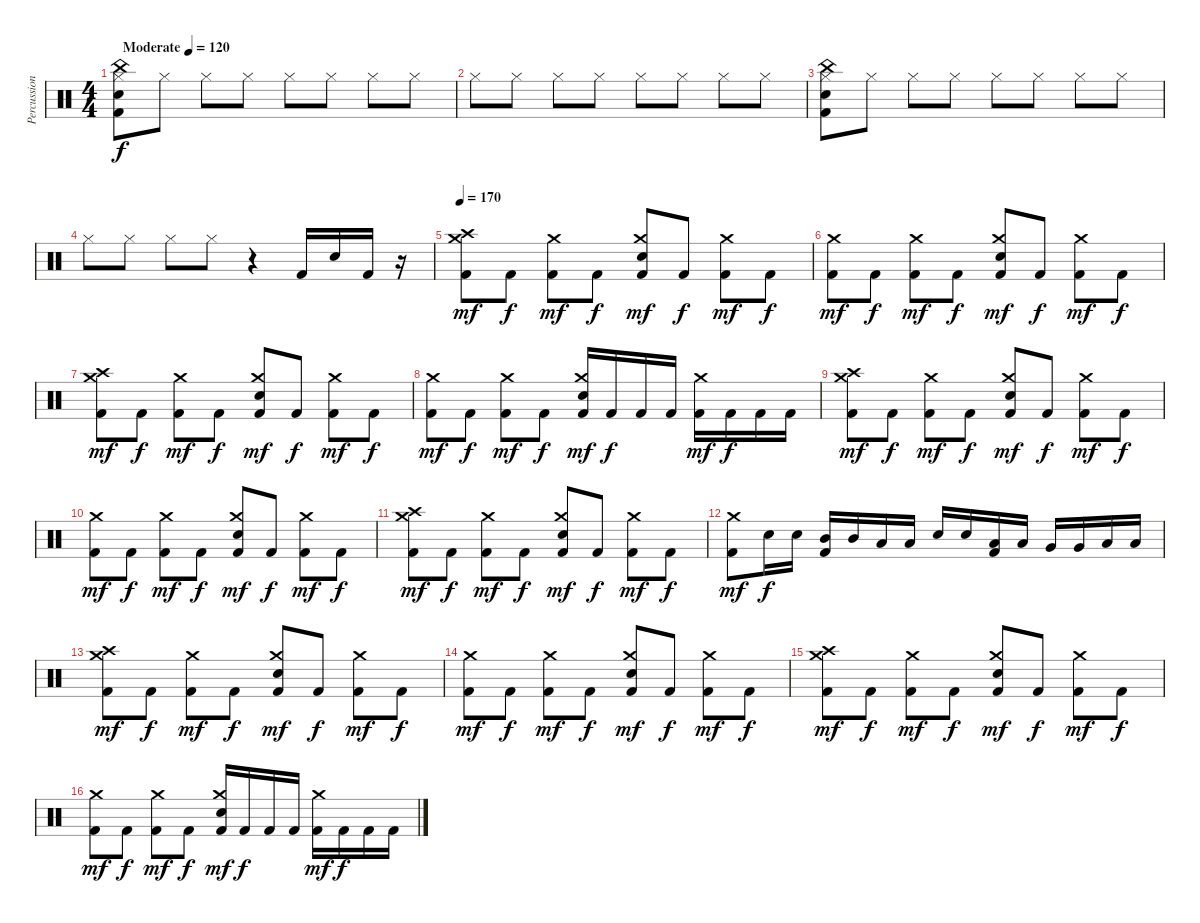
\track ("Percussions" "Percussion") {instrument percussion}
\staff {score}
\articulation defaults
\ts (4 4)
\tempo (120 "Moderate")
\tempo 100
\tempo (120 "Moderate")
\clef neutral
\ks c
("China (hit)" "Hi-Hat (closed)" "Kick (hit) 2" "Electric Snare (hit)").8{dy f} "Hi-Hat (closed)".8 "Hi-Hat (closed)".8 "Hi-Hat (closed)".8 "Hi-Hat (closed)".8 "Hi-Hat (closed)".8 "Hi-Hat (closed)".8 "Hi-Hat (closed)".8 |
"Hi-Hat (closed)".8 "Hi-Hat (closed)".8 "Hi-Hat (closed)".8 "Hi-Hat (closed)".8 "Hi-Hat (closed)".8 "Hi-Hat (closed)".8 "Hi-Hat (closed)".8 "Hi-Hat (closed)".8 |
("China (hit)" "Hi-Hat (closed)" "Kick (hit) 2" "Electric Snare (hit)").8 "Hi-Hat (closed)".8 "Hi-Hat (closed)".8 "Hi-Hat (closed)".8 "Hi-Hat (closed)".8 "Hi-Hat (closed)".8 "Hi-Hat (closed)".8 "Hi-Hat (closed)".8 |
"Hi-Hat (closed)".8 "Hi-Hat (closed)".8 "Hi-Hat (closed)".8 "Hi-Hat (closed)".8 r.4 "Kick (hit) 2".16 "Electric Snare (hit)".16 "Kick (hit) 2".16 r.16 |
\tempo 170
("Kick (hit) 2" "Crash high (hit)" "Crash medium (hit)").8{dy mf} "Kick (hit) 2".8{dy f} ("Kick (hit) 2" "Crash medium (hit)").8{dy mf} "Kick (hit) 2".8{dy f} ("Kick (hit) 2" "Snare (hit) 2" "Crash medium (hit)").8{dy mf} "Kick (hit) 2".8{dy f} ("Kick (hit) 2" "Crash medium (hit)").8{dy mf} "Kick (hit) 2".8{dy f} |
("Kick (hit) 2" "Crash medium (hit)").8{dy mf} "Kick (hit) 2".8{dy f} ("Kick (hit) 2" "Crash medium (hit)").8{dy mf} "Kick (hit) 2".8{dy f} ("Kick (hit) 2" "Snare (hit) 2" "Crash medium (hit)").8{dy mf} "Kick (hit) 2".8{dy f} ("Kick (hit) 2" "Crash medium (hit)").8{dy mf} "Kick (hit) 2".8{dy f} |
("Kick (hit) 2" "Crash high (hit)" "Crash medium (hit)").8{dy mf} "Kick (hit) 2".8{dy f} ("Kick (hit) 2" "Crash medium (hit)").8{dy mf} "Kick (hit) 2".8{dy f} ("Kick (hit) 2" "Snare (hit) 2" "Crash medium (hit)").8{dy mf} "Kick (hit) 2".8{dy f} ("Kick (hit) 2" "Crash medium (hit)").8{dy mf} "Kick (hit) 2".8{dy f} |
("Kick (hit) 2" "Crash medium (hit)").8{dy mf} "Kick (hit) 2".8{dy f} ("Kick (hit) 2" "Crash medium (hit)").8{dy mf} "Kick (hit) 2".8{dy f} ("Kick (hit) 2" "Snare (hit) 2" "Crash medium (hit)").16{dy mf} "Kick (hit) 2".16{dy f} "Kick (hit) 2".16 "Kick (hit) 2".16 ("Kick (hit) 2" "Crash medium (hit)").16{dy mf} "Kick (hit) 2".16{dy f} "Kick (hit) 2".16 "Kick (hit) 2".16 |
("Kick (hit) 2" "Crash high (hit)" "Crash medium (hit)").8{dy mf} "Kick (hit) 2".8{dy f} ("Kick (hit) 2" "Crash medium (hit)").8{dy mf} "Kick (hit) 2".8{dy f} ("Kick (hit) 2" "Snare (hit) 2" "Crash medium (hit)").8{dy mf} "Kick (hit) 2".8{dy f} ("Kick (hit) 2" "Crash medium (hit)").8{dy mf} "Kick (hit) 2".8{dy f} |
("Kick (hit) 2" "Crash medium (hit)").8{dy mf} "Kick (hit) 2".8{dy f} ("Kick (hit) 2" "Crash medium (hit)").8{dy mf} "Kick (hit) 2".8{dy f} ("Kick (hit) 2" "Snare (hit) 2" "Crash medium (hit)").8{dy mf} "Kick (hit) 2".8{dy f} ("Kick (hit) 2" "Crash medium (hit)").8{dy mf} "Kick (hit) 2".8{dy f} |
("Kick (hit) 2" "Crash high (hit)" "Crash medium (hit)").8{dy mf} "Kick (hit) 2".8{dy f} ("Kick (hit) 2" "Crash medium (hit)").8{dy mf} "Kick (hit) 2".8{dy f} ("Kick (hit) 2" "Snare (hit) 2" "Crash medium (hit)").8{dy mf} "Kick (hit) 2".8{dy f} ("Kick (hit) 2" "Crash medium (hit)").8{dy mf} "Kick (hit) 2".8{dy f} |
("Kick (hit) 2" "Crash medium (hit)").8{dy mf} "Snare (hit) 2".16{dy f} "Snare (hit) 2".16 ("Kick (hit) 2" "Mid Tom (hit)").16 "Mid Tom (hit)".16 "Low Tom (hit)".16 "Low Tom (hit)".16 "Snare (hit) 2".16 "Snare (hit) 2".16 ("Kick (hit) 2" "Low Tom (hit)").16 "Low Tom (hit)".16 "Very Low Tom (hit)".16 "Very Low Tom (hit)".16 "Low Floor Tom (hit)".16 "Low Floor Tom (hit)".16 |
("Kick (hit) 2" "Crash high (hit)" "Crash medium (hit)").8{dy mf} "Kick (hit) 2".8{dy f} ("Kick (hit) 2" "Crash medium (hit)").8{dy mf} "Kick (hit) 2".8{dy f} ("Kick (hit) 2" "Snare (hit) 2" "Crash medium (hit)").8{dy mf} "Kick (hit) 2".8{dy f} ("Kick (hit) 2" "Crash medium (hit)").8{dy mf} "Kick (hit) 2".8{dy f} |
("Kick (hit) 2" "Crash medium (hit)").8{dy mf} "Kick (hit) 2".8{dy f} ("Kick (hit) 2" "Crash medium (hit)").8{dy mf} "Kick (hit) 2".8{dy f} ("Kick (hit) 2" "Snare (hit) 2" "Crash medium (hit)").8{dy mf} "Kick (hit) 2".8{dy f} ("Kick (hit) 2" "Crash medium (hit)").8{dy mf} "Kick (hit) 2".8{dy f} |
("Kick (hit) 2" "Crash high (hit)" "Crash medium (hit)").8{dy mf} "Kick (hit) 2".8{dy f} ("Kick (hit) 2" "Crash medium (hit)").8{dy mf} "Kick (hit) 2".8{dy f} ("Kick (hit) 2" "Snare (hit) 2" "Crash medium (hit)").8{dy mf} "Kick (hit) 2".8{dy f} ("Kick (hit) 2" "Crash medium (hit)").8{dy mf} "Kick (hit) 2".8{dy f} |
("Kick (hit) 2" "Crash medium (hit)").8{dy mf} "Kick (hit) 2".8{dy f} ("Kick (hit) 2" "Crash medium (hit)").8{dy mf} "Kick (hit) 2".8{dy f} ("Kick (hit) 2" "Snare (hit) 2" "Crash medium (hit)").16{dy mf} "Kick (hit) 2".16{dy f} "Kick (hit) 2".16 "Kick (hit) 2".16 ("Kick (hit) 2" "Crash medium (hit)").16{dy mf} "Kick (hit) 2".16{dy f} "Kick (hit) 2".16 "Kick (hit) 2".16
